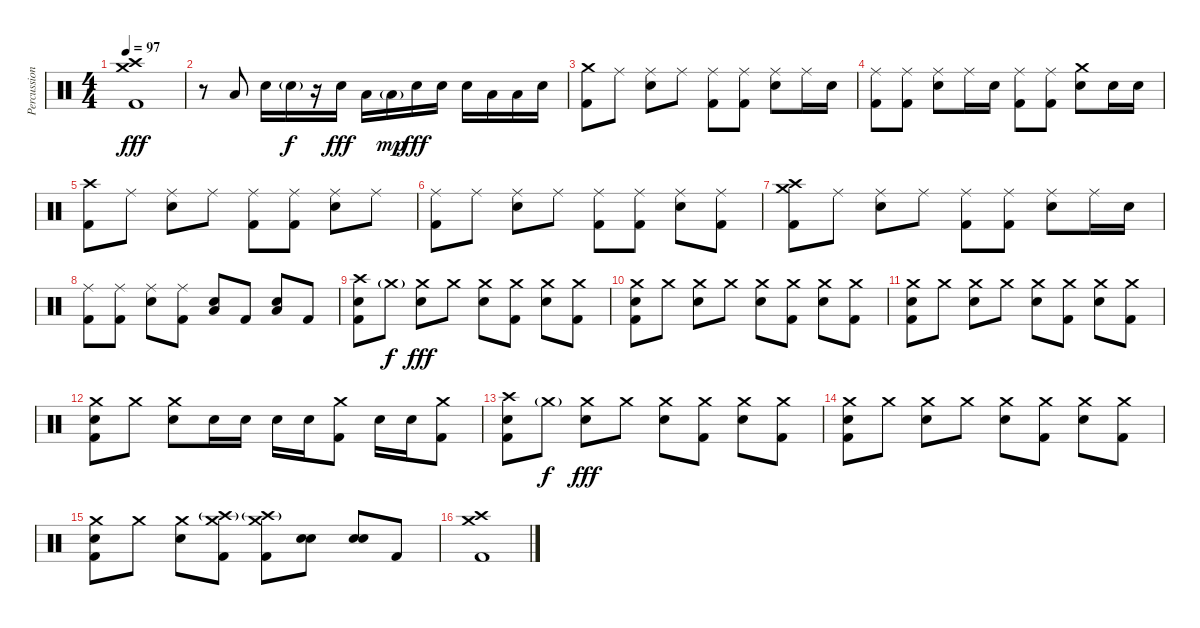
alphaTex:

\track ("Percussion" "Percussion") {instrument percussion}
\staff {score}
\articulation defaults
\ts (4 4)
\tempo 97
\clef neutral
\ks c
("Crash high (hit)" "Crash medium (hit)" "Kick (hit) 2").1{dy fff} |
r.8 "Low Tom (hit)".8 "Electric Snare (hit)".16 "Electric Snare (hit)"{g}.16{dy f} r.16 "Electric Snare (hit)".16{dy fff} "Low Tom (hit)".16 "Low Tom (hit)"{g}.16{dy mp} "Electric Snare (hit)".16{dy fff} "Electric Snare (hit)".16 "Electric Snare (hit)".16 "Low Tom (hit)".16 "Low Floor Tom (hit)".16 "Electric Snare (hit)".16 |
("Crash medium (hit)" "Kick (hit) 2").8 "Ride (middle)".8 ("Ride (middle)" "Electric Snare (hit)").8 "Ride (middle)".8 ("Ride (middle)" "Kick (hit) 2").8 ("Ride (middle)" "Kick (hit) 2").8 ("Ride (middle)" "Electric Snare (hit)").8 "Ride (middle)".16 "Electric Snare (hit)".16 |
("Ride (middle)" "Kick (hit) 2").8 ("Ride (middle)" "Kick (hit) 2").8 ("Ride (middle)" "Electric Snare (hit)").8 "Ride (middle)".16 "Electric Snare (hit)".16 ("Ride (middle)" "Kick (hit) 2").8 ("Ride (middle)" "Kick (hit) 2").8 ("Crash medium (hit)" "Electric Snare (hit)").8 "Electric Snare (hit)".16 "Electric Snare (hit)".16 |
("Crash high (hit)" "Kick (hit) 2").8 "Ride (middle)".8 ("Ride (middle)" "Electric Snare (hit)").8 "Ride (middle)".8 ("Ride (middle)" "Kick (hit) 2").8 ("Ride (middle)" "Kick (hit) 2").8 ("Ride (middle)" "Electric Snare (hit)").8 "Ride (middle)".8 |
("Ride (middle)" "Kick (hit) 2").8 "Ride (middle)".8 ("Ride (middle)" "Electric Snare (hit)").8 "Ride (middle)".8 ("Ride (middle)" "Kick (hit) 2").8 ("Ride (middle)" "Kick (hit) 2").8 ("Ride (middle)" "Electric Snare (hit)").8 ("Ride (middle)" "Kick (hit) 2").8 |
("Crash high (hit)" "Crash medium (hit)" "Kick (hit) 2").8 "Ride (middle)".8 ("Ride (middle)" "Electric Snare (hit)").8 "Ride (middle)".8 ("Ride (middle)" "Kick (hit) 2").8 ("Ride (middle)" "Kick (hit) 2").8 ("Ride (middle)" "Electric Snare (hit)").8 "Ride (middle)".16 "Electric Snare (hit)".16 |
("Ride (middle)" "Kick (hit) 2").8 ("Ride (middle)" "Kick (hit) 2").8 ("Ride (middle)" "Electric Snare (hit)").8 ("Ride (middle)" "Kick (hit) 2").8 ("Electric Snare (hit)" "Low Floor Tom (hit)").8 "Kick (hit) 2".8 ("Electric Snare (hit)" "Low Floor Tom (hit)").8 "Kick (hit) 2".8 |
("Crash high (hit)" "Kick (hit) 2" "Electric Snare (hit)").8 "Crash medium (hit)"{g}.8{dy f} ("Crash medium (hit)" "Electric Snare (hit)").8{dy fff} "Crash medium (hit)".8 ("Crash medium (hit)" "Electric Snare (hit)").8 ("Crash medium (hit)" "Kick (hit) 2").8 ("Crash medium (hit)" "Electric Snare (hit)").8 ("Crash medium (hit)" "Kick (hit) 2").8 |
("Crash medium (hit)" "Kick (hit) 2" "Electric Snare (hit)").8 "Crash medium (hit)".8 ("Crash medium (hit)" "Electric Snare (hit)").8 "Crash medium (hit)".8 ("Crash medium (hit)" "Electric Snare (hit)").8 ("Crash medium (hit)" "Kick (hit) 2").8 ("Crash medium (hit)" "Electric Snare (hit)").8 ("Crash medium (hit)" "Kick (hit) 2").8 |
("Crash medium (hit)" "Kick (hit) 2" "Electric Snare (hit)").8 "Crash medium (hit)".8 ("Crash medium (hit)" "Electric Snare (hit)").8 "Crash medium (hit)".8 ("Crash medium (hit)" "Electric Snare (hit)").8 ("Crash medium (hit)" "Kick (hit) 2").8 ("Crash medium (hit)" "Electric Snare (hit)").8 ("Crash medium (hit)" "Kick (hit) 2").8 |
("Crash medium (hit)" "Kick (hit) 2" "Electric Snare (hit)").8 "Crash medium (hit)".8 ("Crash medium (hit)" "Electric Snare (hit)").8 "Electric Snare (hit)".16 "Electric Snare (hit)".16 "Electric Snare (hit)".16 "Electric Snare (hit)".16 ("Crash medium (hit)" "Kick (hit) 2").8 "Electric Snare (hit)".16 "Electric Snare (hit)".16 ("Crash medium (hit)" "Kick (hit) 2").8 |
("Crash high (hit)" "Kick (hit) 2" "Electric Snare (hit)").8 "Crash medium (hit)"{g}.8{dy f} ("Crash medium (hit)" "Electric Snare (hit)").8{dy fff} "Crash medium (hit)".8 ("Crash medium (hit)" "Electric Snare (hit)").8 ("Crash medium (hit)" "Kick (hit) 2").8 ("Crash medium (hit)" "Electric Snare (hit)").8 ("Crash medium (hit)" "Kick (hit) 2").8 |
("Crash medium (hit)" "Kick (hit) 2" "Electric Snare (hit)").8 "Crash medium (hit)".8 ("Crash medium (hit)" "Electric Snare (hit)").8 "Crash medium (hit)".8 ("Crash medium (hit)" "Electric Snare (hit)").8 ("Crash medium (hit)" "Kick (hit) 2").8 ("Crash medium (hit)" "Electric Snare (hit)").8 ("Crash medium (hit)" "Kick (hit) 2").8 |
("Crash medium (hit)" "Kick (hit) 2" "Electric Snare (hit)").8 "Crash medium (hit)".8 ("Crash medium (hit)" "Electric Snare (hit)").8 ("Crash high (hit)"{g} "Crash medium (hit)" "Kick (hit) 2").8 ("Crash high (hit)"{g} "Crash medium (hit)" "Kick (hit) 2").8 ("Electric Snare (hit)" "Electric Snare (hit)").8{bd 480} ("Electric Snare (hit)" "Electric Snare (hit)").8{bd 480} "Kick (hit) 2".8 |
("Crash high (hit)" "Crash medium (hit)" "Kick (hit) 2").1
